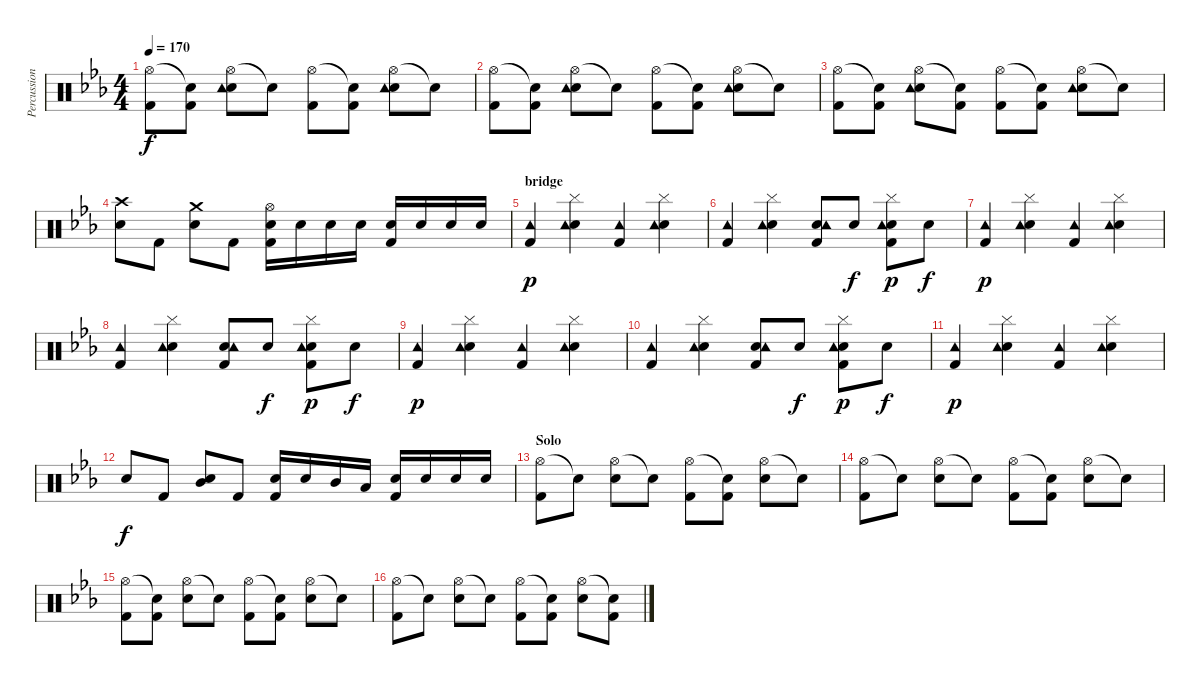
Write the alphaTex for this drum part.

\track ("Percussion" "Percussion") {instrument percussion}
\staff {score}
\articulation defaults
\ts (4 4)
\tempo 170
\clef neutral
\ks cminor
("Hi-Hat (open)" "Kick (hit) 2").8{dy f} ("Snare (hit)"{t} "Kick (hit) 2").8 ("Hi-Hat (open)" "Electric Snare (hit)" "Tambourine (hit)").8 "Snare (hit)"{t}.8 ("Hi-Hat (open)" "Kick (hit) 2").8 ("Snare (hit)"{t} "Kick (hit) 2").8 ("Hi-Hat (open)" "Electric Snare (hit)" "Tambourine (hit)").8 "Snare (hit)"{t}.8 |
("Hi-Hat (open)" "Kick (hit) 2").8 ("Snare (hit)"{t} "Kick (hit) 2").8 ("Hi-Hat (open)" "Electric Snare (hit)" "Tambourine (hit)").8 "Snare (hit)"{t}.8 ("Hi-Hat (open)" "Kick (hit) 2").8 ("Snare (hit)"{t} "Kick (hit) 2").8 ("Hi-Hat (open)" "Electric Snare (hit)" "Tambourine (hit)").8 "Snare (hit)"{t}.8 |
("Hi-Hat (open)" "Kick (hit) 2").8 ("Snare (hit)"{t} "Kick (hit) 2").8 ("Hi-Hat (open)" "Electric Snare (hit)" "Tambourine (hit)").8 ("Snare (hit)"{t} "Kick (hit) 2").8 ("Hi-Hat (open)" "Kick (hit) 2").8 ("Snare (hit)"{t} "Kick (hit) 2").8 ("Hi-Hat (open)" "Electric Snare (hit)" "Tambourine (hit)").8 "Snare (hit)"{t}.8 |
("Crash high (hit)" "Electric Snare (hit)").8 "Kick (hit) 2".8 ("Crash medium (hit)" "Electric Snare (hit)").8 "Kick (hit) 2".8 ("Hi-Hat (open)" "Electric Snare (hit)" "Kick (hit) 2").16 "Electric Snare (hit)".16 "Electric Snare (hit)".16 "Electric Snare (hit)".16 ("Electric Snare (hit)" "Kick (hit) 2").16 "Electric Snare (hit)".16 "Electric Snare (hit)".16 "Electric Snare (hit)".16 |
\section ("" "bridge")
("Kick (hit) 2" "Tambourine (hit)").4{dy p} ("Electric Snare (hit)" "Cymbal (hit)" "Tambourine (hit)").4 ("Kick (hit) 2" "Tambourine (hit)").4 ("Electric Snare (hit)" "Cymbal (hit)" "Tambourine (hit)").4 |
("Kick (hit) 2" "Tambourine (hit)").4 ("Electric Snare (hit)" "Cymbal (hit)" "Tambourine (hit)").4 ("Electric Snare (hit)" "Kick (hit) 2" "Tambourine (hit)").8 "Electric Snare (hit)".8{dy f} ("Electric Snare (hit)" "Kick (hit) 2" "Cymbal (hit)" "Tambourine (hit)").8{dy p} "Electric Snare (hit)".8{dy f} |
("Kick (hit) 2" "Tambourine (hit)").4{dy p} ("Electric Snare (hit)" "Cymbal (hit)" "Tambourine (hit)").4 ("Kick (hit) 2" "Tambourine (hit)").4 ("Electric Snare (hit)" "Cymbal (hit)" "Tambourine (hit)").4 |
("Kick (hit) 2" "Tambourine (hit)").4 ("Electric Snare (hit)" "Cymbal (hit)" "Tambourine (hit)").4 ("Electric Snare (hit)" "Kick (hit) 2" "Tambourine (hit)").8 "Electric Snare (hit)".8{dy f} ("Electric Snare (hit)" "Kick (hit) 2" "Cymbal (hit)" "Tambourine (hit)").8{dy p} "Electric Snare (hit)".8{dy f} |
("Kick (hit) 2" "Tambourine (hit)").4{dy p} ("Electric Snare (hit)" "Cymbal (hit)" "Tambourine (hit)").4 ("Kick (hit) 2" "Tambourine (hit)").4 ("Electric Snare (hit)" "Cymbal (hit)" "Tambourine (hit)").4 |
("Kick (hit) 2" "Tambourine (hit)").4 ("Electric Snare (hit)" "Cymbal (hit)" "Tambourine (hit)").4 ("Electric Snare (hit)" "Kick (hit) 2" "Tambourine (hit)").8 "Electric Snare (hit)".8{dy f} ("Electric Snare (hit)" "Kick (hit) 2" "Cymbal (hit)" "Tambourine (hit)").8{dy p} "Electric Snare (hit)".8{dy f} |
("Kick (hit) 2" "Tambourine (hit)").4{dy p} ("Electric Snare (hit)" "Cymbal (hit)" "Tambourine (hit)").4 ("Kick (hit) 2" "Tambourine (hit)").4 ("Electric Snare (hit)" "Cymbal (hit)" "Tambourine (hit)").4 |
"Electric Snare (hit)".8{dy f} "Kick (hit) 2".8 ("Electric Snare (hit)" "Mid Tom (hit)").8 "Kick (hit) 2".8 ("Electric Snare (hit)" "Kick (hit) 2").16 "Electric Snare (hit)".16 "Mid Tom (hit)".16 "Low Tom (hit)".16 ("Electric Snare (hit)" "Kick (hit) 2").16 "Electric Snare (hit)".16 "Electric Snare (hit)".16 "Electric Snare (hit)".16 |
\section ("" "Solo")
("Hi-Hat (open)" "Kick (hit) 2").8 "Snare (hit)"{t}.8 ("Hi-Hat (open)" "Electric Snare (hit)").8 "Snare (hit)"{t}.8 ("Hi-Hat (open)" "Kick (hit) 2").8 ("Snare (hit)"{t} "Kick (hit) 2").8 ("Hi-Hat (open)" "Electric Snare (hit)").8 "Snare (hit)"{t}.8 |
("Hi-Hat (open)" "Kick (hit) 2").8 "Snare (hit)"{t}.8 ("Hi-Hat (open)" "Electric Snare (hit)").8 "Snare (hit)"{t}.8 ("Hi-Hat (open)" "Kick (hit) 2").8 ("Snare (hit)"{t} "Kick (hit) 2").8 ("Hi-Hat (open)" "Electric Snare (hit)").8 "Snare (hit)"{t}.8 |
("Hi-Hat (open)" "Kick (hit) 2").8 ("Snare (hit)"{t} "Kick (hit) 2").8 ("Hi-Hat (open)" "Electric Snare (hit)").8 "Snare (hit)"{t}.8 ("Hi-Hat (open)" "Kick (hit) 2").8 ("Snare (hit)"{t} "Kick (hit) 2").8 ("Hi-Hat (open)" "Electric Snare (hit)").8 "Snare (hit)"{t}.8 |
("Hi-Hat (open)" "Kick (hit) 2").8 "Snare (hit)"{t}.8 ("Hi-Hat (open)" "Electric Snare (hit)").8 "Snare (hit)"{t}.8 ("Hi-Hat (open)" "Kick (hit) 2").8 ("Snare (hit)"{t} "Kick (hit) 2").8 ("Hi-Hat (open)" "Electric Snare (hit)").8 ("Snare (hit)"{t} "Kick (hit) 2").8
